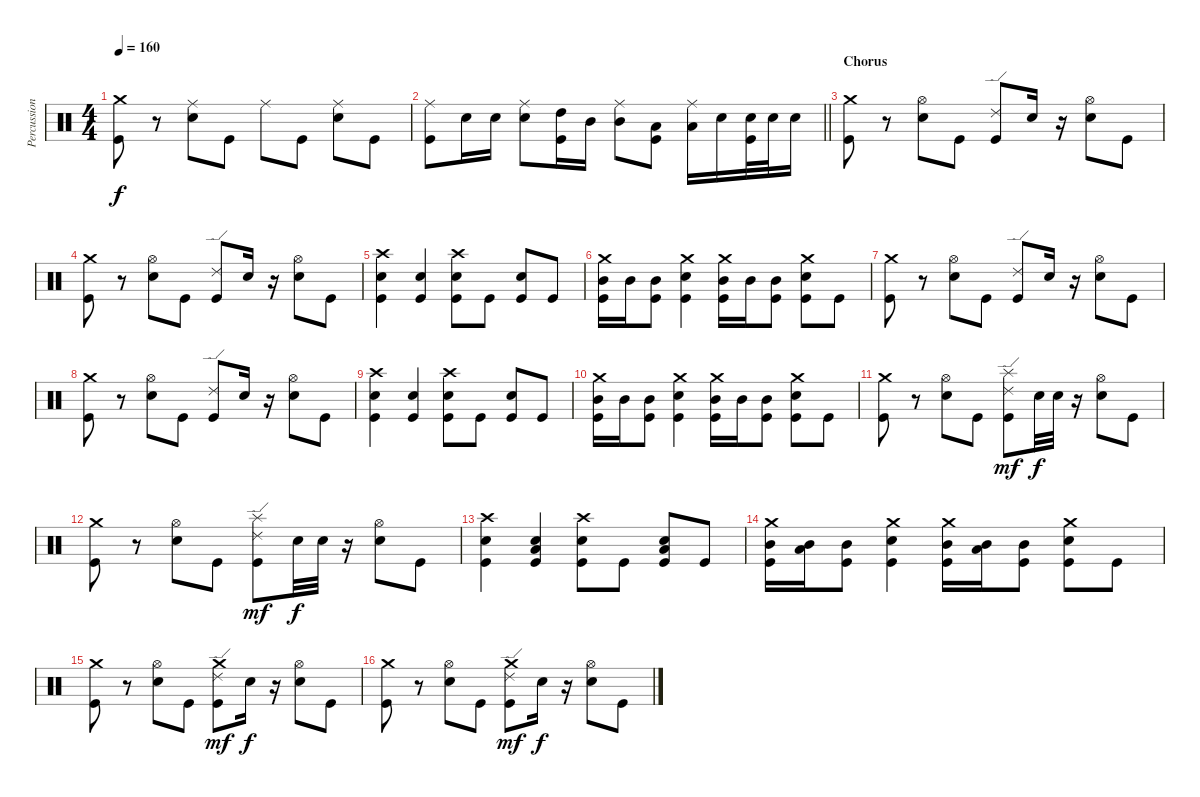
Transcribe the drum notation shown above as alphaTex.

\track ("Percussion" "Percussion") {instrument percussion}
\staff {score}
\articulation defaults
\ts (4 4)
\tempo 160
\clef neutral
\ks c
("Crash medium (hit)" "Kick (hit)").8{dy f} r.8 ("Ride (middle)" "Snare (hit) 2").8 "Kick (hit)".8 "Ride (middle)".8 "Kick (hit)".8 ("Ride (middle)" "Snare (hit) 2").8 "Kick (hit)".8 |
\barLineRight lightlight
("Ride (middle)" "Kick (hit)").8 "Snare (hit) 2".16 "Snare (hit) 2".16 ("Ride (middle)" "Snare (hit) 2").8 ("High Tom (hit)" "Kick (hit)").16 "Mid Tom (hit)".16 ("Ride (middle)" "Mid Tom (hit)").8 ("Low Tom (hit)" "Kick (hit)").8 ("Ride (middle)" "Low Tom (hit)").16 "Snare (hit) 2".16 ("Snare (hit) 2" "Kick (hit)").32 "Snare (hit) 2".32 "Snare (hit) 2".16 |
\section ("" "Chorus")
("Crash medium (hit)" "Kick (hit)").8 r.8 ("Hi-Hat (open)" "Snare (hit) 2").8 "Kick (hit)".8 ("Ride (edge) 2" "Kick (hit)").8 "Snare (hit) 2".16 r.16 ("Hi-Hat (open)" "Snare (hit) 2").8 "Kick (hit)".8 |
("Crash medium (hit)" "Kick (hit)").8 r.8 ("Hi-Hat (open)" "Snare (hit) 2").8 "Kick (hit)".8 ("Ride (edge) 2" "Kick (hit)").8 "Snare (hit) 2".16 r.16 ("Hi-Hat (open)" "Snare (hit) 2").8 "Kick (hit)".8 |
("Crash high (hit)" "Snare (hit) 2" "Kick (hit)").4 ("Snare (hit) 2" "Kick (hit)").4 ("Crash high (hit)" "Snare (hit) 2" "Kick (hit)").8 "Kick (hit)".8 ("Snare (hit) 2" "Kick (hit)").8 "Kick (hit)".8 |
("Crash medium (hit)" "Mid Tom (hit)" "Kick (hit)").16 "Mid Tom (hit)".16 ("Mid Tom (hit)" "Kick (hit)").8 ("Crash medium (hit)" "Snare (hit) 2" "Kick (hit)").4 ("Crash medium (hit)" "Mid Tom (hit)" "Kick (hit)").16 "Mid Tom (hit)".16 ("Mid Tom (hit)" "Kick (hit)").8 ("Crash medium (hit)" "Snare (hit) 2" "Kick (hit)").8 "Kick (hit)".8 |
("Crash medium (hit)" "Kick (hit)").8 r.8 ("Hi-Hat (open)" "Snare (hit) 2").8 "Kick (hit)".8 ("Ride (edge) 2" "Kick (hit)").8 "Snare (hit) 2".16 r.16 ("Hi-Hat (open)" "Snare (hit) 2").8 "Kick (hit)".8 |
("Crash medium (hit)" "Kick (hit)").8 r.8 ("Hi-Hat (open)" "Snare (hit) 2").8 "Kick (hit)".8 ("Ride (edge) 2" "Kick (hit)").8 "Snare (hit) 2".16 r.16 ("Hi-Hat (open)" "Snare (hit) 2").8 "Kick (hit)".8 |
("Crash high (hit)" "Snare (hit) 2" "Kick (hit)").4 ("Snare (hit) 2" "Kick (hit)").4 ("Crash high (hit)" "Snare (hit) 2" "Kick (hit)").8 "Kick (hit)".8 ("Snare (hit) 2" "Kick (hit)").8 "Kick (hit)".8 |
("Crash medium (hit)" "Mid Tom (hit)" "Kick (hit)").16 "Mid Tom (hit)".16 ("Mid Tom (hit)" "Kick (hit)").8 ("Crash medium (hit)" "Snare (hit) 2" "Kick (hit)").4 ("Crash medium (hit)" "Mid Tom (hit)" "Kick (hit)").16 "Mid Tom (hit)".16 ("Mid Tom (hit)" "Kick (hit)").8 ("Crash medium (hit)" "Snare (hit) 2" "Kick (hit)").8 "Kick (hit)".8 |
("Crash medium (hit)" "Kick (hit)").8 r.8 ("Hi-Hat (open)" "Snare (hit) 2").8 "Kick (hit)".8 ("Ride (edge) 2" "Splash (hit)" "Kick (hit)").8{dy mf} "Snare (hit) 2".32{dy f} "Snare (hit) 2".32 r.16 ("Hi-Hat (open)" "Snare (hit) 2").8 "Kick (hit)".8 |
("Crash medium (hit)" "Kick (hit)").8 r.8 ("Hi-Hat (open)" "Snare (hit) 2").8 "Kick (hit)".8 ("Ride (edge) 2" "Splash (hit)" "Kick (hit)").8{dy mf} "Snare (hit) 2".32{dy f} "Snare (hit) 2".32 r.16 ("Hi-Hat (open)" "Snare (hit) 2").8 "Kick (hit)".8 |
("Crash high (hit)" "Snare (hit) 2" "Kick (hit)").4 ("Low Tom (hit)" "Snare (hit) 2" "Kick (hit)").4 ("Crash high (hit)" "Snare (hit) 2" "Kick (hit)").8 "Kick (hit)".8 ("Low Tom (hit)" "Snare (hit) 2" "Kick (hit)").8 "Kick (hit)".8 |
("Crash medium (hit)" "Mid Tom (hit)" "Kick (hit)").16 ("Low Tom (hit)" "Mid Tom (hit)").16 ("Mid Tom (hit)" "Kick (hit)").8 ("Crash medium (hit)" "Snare (hit) 2" "Kick (hit)").4 ("Crash medium (hit)" "Mid Tom (hit)" "Kick (hit)").16 ("Low Tom (hit)" "Mid Tom (hit)").16 ("Mid Tom (hit)" "Kick (hit)").8 ("Crash medium (hit)" "Snare (hit) 2" "Kick (hit)").8 "Kick (hit)".8 |
("Crash medium (hit)" "Kick (hit)").8 r.8 ("Hi-Hat (open)" "Snare (hit) 2").8 "Kick (hit)".8 ("Crash medium (hit)" "Ride (edge) 2" "Kick (hit)").8{dy mf} "Snare (hit) 2".16{dy f} r.16 ("Hi-Hat (open)" "Snare (hit) 2").8 "Kick (hit)".8 |
("Crash medium (hit)" "Kick (hit)").8 r.8 ("Hi-Hat (open)" "Snare (hit) 2").8 "Kick (hit)".8 ("Crash medium (hit)" "Ride (edge) 2" "Kick (hit)").8{dy mf} "Snare (hit) 2".16{dy f} r.16 ("Hi-Hat (open)" "Snare (hit) 2").8 "Kick (hit)".8
